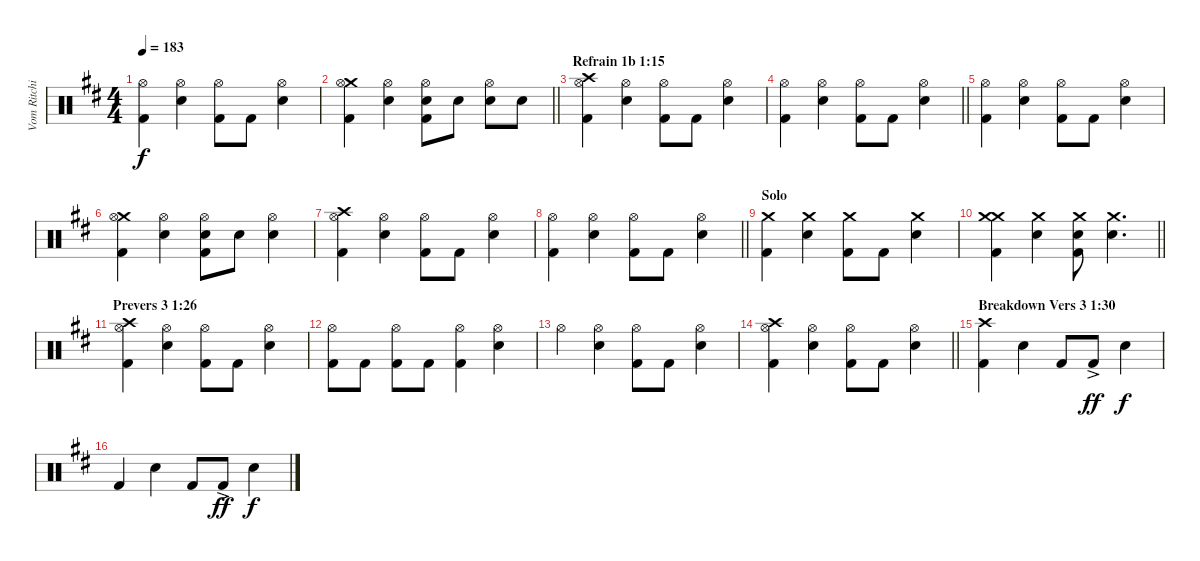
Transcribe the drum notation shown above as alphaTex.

\track ("Vom Ritchie" "Vom Ritchi") {instrument percussion}
\staff {score}
\articulation defaults
\ts (4 4)
\tempo 183
\clef neutral
\ks d
("Hi-Hat (open)" "Kick (hit) 2").4{dy f} ("Snare (hit) 2" "Hi-Hat (open)").4 ("Hi-Hat (open)" "Kick (hit) 2").8 "Kick (hit) 2".8 ("Snare (hit) 2" "Hi-Hat (open)").4 |
\barLineRight lightlight
("Crash medium (hit)" "Hi-Hat (open)" "Kick (hit) 2").4 ("Snare (hit) 2" "Hi-Hat (open)").4 ("Snare (hit) 2" "Hi-Hat (open)" "Kick (hit) 2").8 "Snare (hit) 2".8 ("Snare (hit) 2" "Hi-Hat (open)").8 "Snare (hit) 2".8 |
\section ("" "Refrain 1b 1:15")
("Crash high (hit)" "Hi-Hat (open)" "Kick (hit) 2").4 ("Snare (hit) 2" "Hi-Hat (open)").4 ("Hi-Hat (open)" "Kick (hit) 2").8 "Kick (hit) 2".8 ("Snare (hit) 2" "Hi-Hat (open)").4 |
\barLineRight lightlight
("Hi-Hat (open)" "Kick (hit) 2").4 ("Snare (hit) 2" "Hi-Hat (open)").4 ("Hi-Hat (open)" "Kick (hit) 2").8 "Kick (hit) 2".8 ("Snare (hit) 2" "Hi-Hat (open)").4 |
("Hi-Hat (open)" "Kick (hit) 2").4 ("Snare (hit) 2" "Hi-Hat (open)").4 ("Hi-Hat (open)" "Kick (hit) 2").8 "Kick (hit) 2".8 ("Snare (hit) 2" "Hi-Hat (open)").4 |
("Crash medium (hit)" "Hi-Hat (open)" "Kick (hit) 2").4 ("Snare (hit) 2" "Hi-Hat (open)").4 ("Snare (hit) 2" "Hi-Hat (open)" "Kick (hit) 2").8 "Snare (hit) 2".8 ("Snare (hit) 2" "Hi-Hat (open)").4 |
("Crash high (hit)" "Hi-Hat (open)" "Kick (hit) 2").4 ("Snare (hit) 2" "Hi-Hat (open)").4 ("Hi-Hat (open)" "Kick (hit) 2").8 "Kick (hit) 2".8 ("Snare (hit) 2" "Hi-Hat (open)").4 |
\barLineRight lightlight
("Hi-Hat (open)" "Kick (hit) 2").4 ("Snare (hit) 2" "Hi-Hat (open)").4 ("Hi-Hat (open)" "Kick (hit) 2").8 "Kick (hit) 2".8 ("Snare (hit) 2" "Hi-Hat (open)").4 |
\section ("" "Solo")
("Crash medium (hit)" "Kick (hit) 2").4 ("Snare (hit) 2" "Crash medium (hit)").4 ("Crash medium (hit)" "Kick (hit) 2").8 "Kick (hit) 2".8 ("Snare (hit) 2" "Crash medium (hit)").4 |
\barLineRight lightlight
("Crash medium (hit)" "Crash medium (hit)" "Kick (hit) 2").4 ("Snare (hit) 2" "Crash medium (hit)").4 ("Snare (hit) 2" "Crash medium (hit)" "Kick (hit) 2").8 ("Snare (hit) 2" "Crash medium (hit)").4{d} |
\section ("" "Prevers 3 1:26")
("Crash high (hit)" "Hi-Hat (open)" "Kick (hit) 2").4 ("Snare (hit) 2" "Hi-Hat (open)").4 ("Hi-Hat (open)" "Kick (hit) 2").8 "Kick (hit) 2".8 ("Snare (hit) 2" "Hi-Hat (open)").4 |
("Hi-Hat (open)" "Kick (hit) 2").8 "Kick (hit) 2".8 ("Hi-Hat (open)" "Kick (hit) 2").8 "Kick (hit) 2".8 ("Hi-Hat (open)" "Kick (hit) 2").4 ("Hi-Hat (open)" "Snare (hit) 2").4 |
"Hi-Hat (open)".4 ("Snare (hit) 2" "Hi-Hat (open)").4 ("Hi-Hat (open)" "Kick (hit) 2").8 "Kick (hit) 2".8 ("Snare (hit) 2" "Hi-Hat (open)").4 |
\barLineRight lightlight
("Crash high (hit)" "Hi-Hat (open)" "Kick (hit) 2").4 ("Snare (hit) 2" "Hi-Hat (open)").4 ("Hi-Hat (open)" "Kick (hit) 2").8 "Kick (hit) 2".8 ("Snare (hit) 2" "Hi-Hat (open)").4 |
\section ("" "Breakdown Vers 3 1:30")
("Crash high (hit)" "Kick (hit) 2").4 "Snare (hit) 2".4 "Kick (hit) 2".8 "Kick (hit) 2"{ac}.8{dy ff} "Snare (hit) 2".4{dy f} |
"Kick (hit) 2".4 "Snare (hit) 2".4 "Kick (hit) 2".8 "Kick (hit) 2"{ac}.8{dy ff} "Snare (hit) 2".4{dy f}
